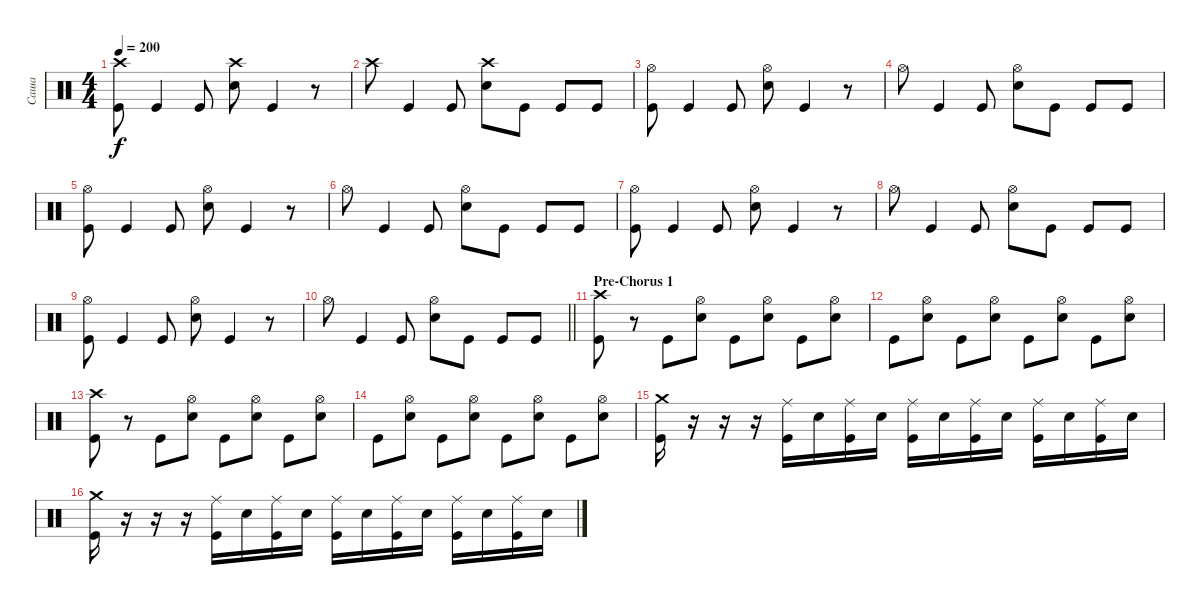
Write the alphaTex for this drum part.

\track ("Саша" "Саша") {instrument percussion}
\staff {score}
\articulation defaults
\ts (4 4)
\tempo 200
\clef neutral
\ks c
("Crash high (hit)" "Kick (hit)").8{dy f} "Kick (hit)".4 "Kick (hit)".8 ("Crash high (hit)" "Electric Snare (hit)").8 "Kick (hit)".4 r.8 |
"Crash high (hit)".8 "Kick (hit)".4 "Kick (hit)".8 ("Crash high (hit)" "Electric Snare (hit)").8 "Kick (hit)".8 "Kick (hit)".8 "Kick (hit)".8 |
("Hi-Hat (open)" "Kick (hit)").8 "Kick (hit)".4 "Kick (hit)".8 ("Hi-Hat (open)" "Electric Snare (hit)").8 "Kick (hit)".4 r.8 |
"Hi-Hat (open)".8 "Kick (hit)".4 "Kick (hit)".8 ("Hi-Hat (open)" "Electric Snare (hit)").8 "Kick (hit)".8 "Kick (hit)".8 "Kick (hit)".8 |
("Hi-Hat (open)" "Kick (hit)").8 "Kick (hit)".4 "Kick (hit)".8 ("Hi-Hat (open)" "Electric Snare (hit)").8 "Kick (hit)".4 r.8 |
"Hi-Hat (open)".8 "Kick (hit)".4 "Kick (hit)".8 ("Hi-Hat (open)" "Electric Snare (hit)").8 "Kick (hit)".8 "Kick (hit)".8 "Kick (hit)".8 |
("Hi-Hat (open)" "Kick (hit)").8 "Kick (hit)".4 "Kick (hit)".8 ("Hi-Hat (open)" "Electric Snare (hit)").8 "Kick (hit)".4 r.8 |
"Hi-Hat (open)".8 "Kick (hit)".4 "Kick (hit)".8 ("Hi-Hat (open)" "Electric Snare (hit)").8 "Kick (hit)".8 "Kick (hit)".8 "Kick (hit)".8 |
("Hi-Hat (open)" "Kick (hit)").8 "Kick (hit)".4 "Kick (hit)".8 ("Hi-Hat (open)" "Electric Snare (hit)").8 "Kick (hit)".4 r.8 |
\barLineRight lightlight "Hi-Hat (open)".8 "Kick (hit)".4 "Kick (hit)".8
("Hi-Hat (open)" "Electric Snare (hit)").8 "Kick (hit)".8 "Kick (hit)".8 "Kick (hit)".8 |
\section ("" "Pre-Chorus 1")
("Crash high (hit)" "Kick (hit)").8 r.8 "Kick (hit)".8 ("Hi-Hat (open)" "Electric Snare (hit)").8 "Kick (hit)".8 ("Hi-Hat (open)" "Electric Snare (hit)").8 "Kick (hit)".8 ("Hi-Hat (open)" "Electric Snare (hit)").8 |
"Kick (hit)".8 ("Hi-Hat (open)" "Electric Snare (hit)").8 "Kick (hit)".8 ("Hi-Hat (open)" "Electric Snare (hit)").8 "Kick (hit)".8 ("Hi-Hat (open)" "Electric Snare (hit)").8 "Kick (hit)".8 ("Hi-Hat (open)" "Electric Snare (hit)").8 |
("Crash high (hit)" "Kick (hit)").8 r.8 "Kick (hit)".8 ("Hi-Hat (open)" "Electric Snare (hit)").8 "Kick (hit)".8 ("Hi-Hat (open)" "Electric Snare (hit)").8 "Kick (hit)".8 ("Hi-Hat (open)" "Electric Snare (hit)").8 |
"Kick (hit)".8 ("Hi-Hat (open)" "Electric Snare (hit)").8 "Kick (hit)".8 ("Hi-Hat (open)" "Electric Snare (hit)").8 "Kick (hit)".8 ("Hi-Hat (open)" "Electric Snare (hit)").8 "Kick (hit)".8 ("Hi-Hat (open)" "Electric Snare (hit)").8 |
("Crash medium (hit)" "Kick (hit)").16 r.16 r.16 r.16 ("Ride (middle)" "Kick (hit)").16 "Electric Snare (hit)".16 ("Ride (middle)" "Kick (hit)").16 "Electric Snare (hit)".16 ("Ride (middle)" "Kick (hit)").16 "Electric Snare (hit)".16 ("Ride (middle)" "Kick (hit)").16 "Electric Snare (hit)".16 ("Ride (middle)" "Kick (hit)").16 "Electric Snare (hit)".16 ("Ride (middle)" "Kick (hit)").16 "Electric Snare (hit)".16 |
("Crash medium (hit)" "Kick (hit)").16 r.16 r.16 r.16 ("Ride (middle)" "Kick (hit)").16 "Electric Snare (hit)".16 ("Ride (middle)" "Kick (hit)").16 "Electric Snare (hit)".16 ("Ride (middle)" "Kick (hit)").16 "Electric Snare (hit)".16 ("Ride (middle)" "Kick (hit)").16 "Electric Snare (hit)".16 ("Ride (middle)" "Kick (hit)").16 "Electric Snare (hit)".16 ("Ride (middle)" "Kick (hit)").16 "Electric Snare (hit)".16
